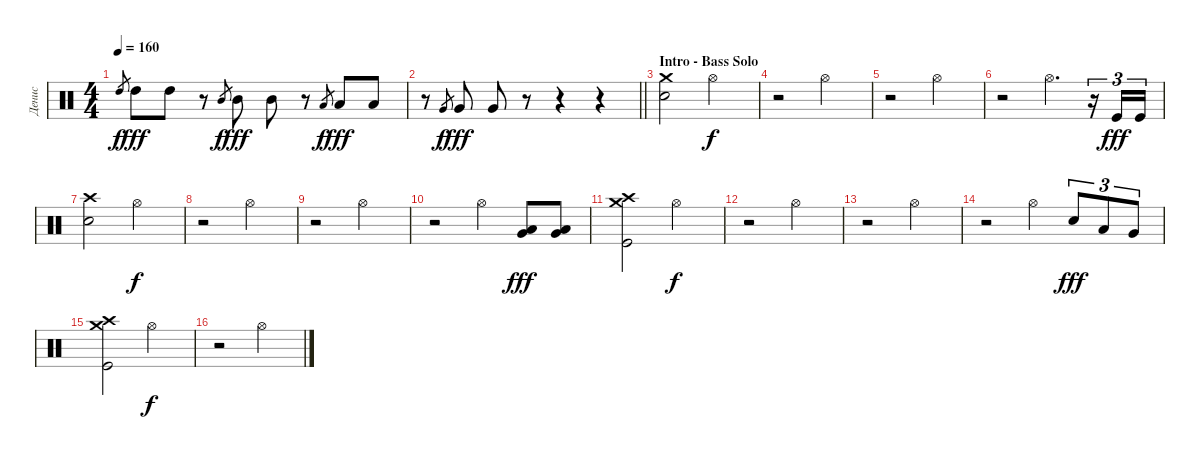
\track ("Денис" "Денис") {instrument percussion}
\staff {score}
\articulation defaults
\ts (4 4)
\tempo 160
\clef neutral
\ks c "High Tom (hit)".8{gr dy f} "High Tom (hit)".8{dy fff} "High Tom (hit)".8
r.8 "Mid Tom (hit)".8{gr dy f} "Mid Tom (hit)".8{dy fff} "Mid Tom (hit)".8 r.8 "Low Tom (hit)".8{gr dy f} "Low Tom (hit)".8{dy fff} "Low Tom (hit)".8 |
\barLineRight lightlight
r.8 "Very Low Tom (hit)".8{gr dy f} "Very Low Tom (hit)".8{dy fff} "Very Low Tom (hit)".8 r.8 r.4 r.4 |
\section ("" "Intro - Bass Solo")
("Electric Snare (hit)" "Crash medium (hit)").2 "Hi-Hat (open)".2{dy f} |
r.2 "Hi-Hat (open)".2 |
r.2 "Hi-Hat (open)".2 |
r.2 "Hi-Hat (open)".4{d} r.16{tu (3 2)} "Kick (hit)".16{tu (3 2) dy fff} "Kick (hit)".16{tu (3 2)} |
("Electric Snare (hit)" "Crash high (hit)").2 "Hi-Hat (open)".2{dy f} |
r.2 "Hi-Hat (open)".2 |
r.2 "Hi-Hat (open)".2 |
r.2 "Hi-Hat (open)".4 ("Low Tom (hit)" "Very Low Tom (hit)").8{dy fff} ("Low Tom (hit)" "Very Low Tom (hit)").8 |
("Crash high (hit)" "Kick (hit)" "Crash medium (hit)").2 "Hi-Hat (open)".2{dy f} |
r.2 "Hi-Hat (open)".2 |
r.2 "Hi-Hat (open)".2 |
r.2 "Hi-Hat (open)".4 "Electric Snare (hit)".8{tu (3 2) dy fff} "Low Tom (hit)".8{tu (3 2)} "Very Low Tom (hit)".8{tu (3 2)} |
("Crash high (hit)" "Crash medium (hit)" "Kick (hit)").2 "Hi-Hat (open)".2{dy f} |
r.2 "Hi-Hat (open)".2
